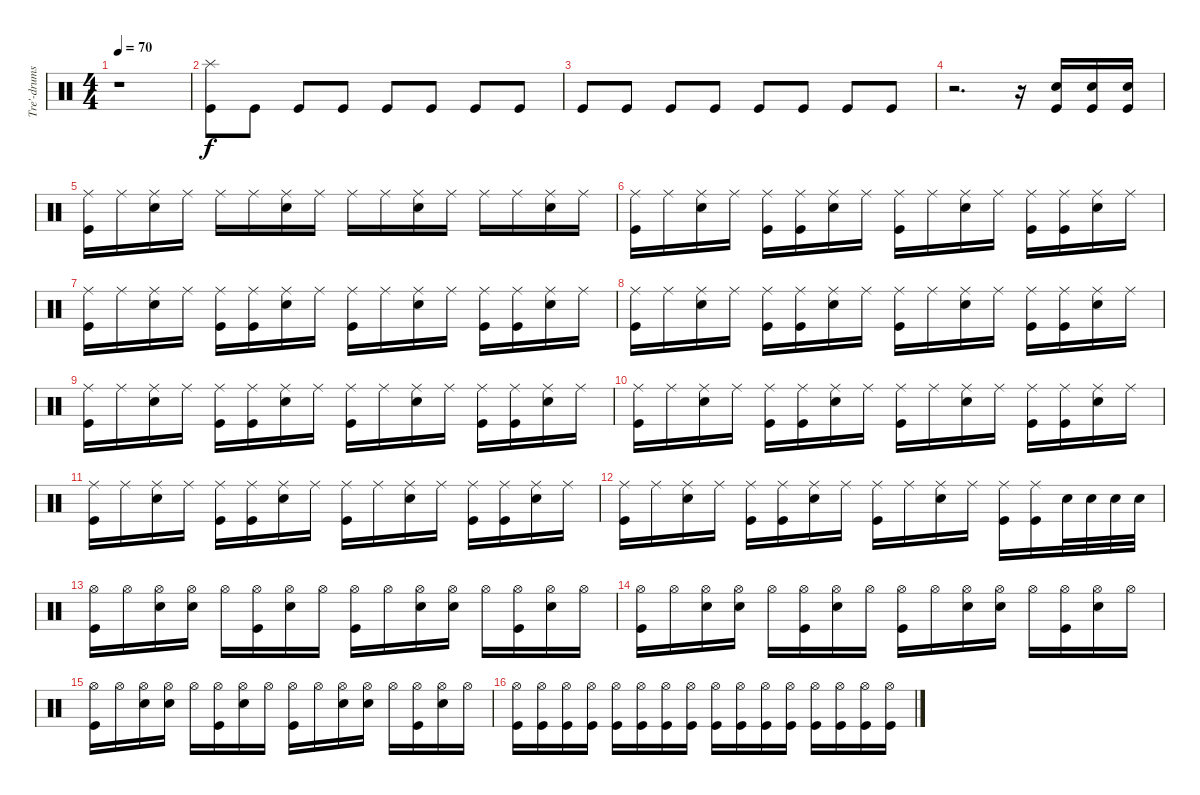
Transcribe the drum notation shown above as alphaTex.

\track ("Tre'-drums" "Tre'-drums") {instrument percussion}
\staff {score}
\articulation defaults
\ts (4 4)
\tempo 70
\clef neutral
\ks c
r.1{dy f} |
("Splash (hit)" "Kick (hit)").8 "Kick (hit)".8 "Kick (hit)".8 "Kick (hit)".8 "Kick (hit)".8 "Kick (hit)".8 "Kick (hit)".8 "Kick (hit)".8 |
"Kick (hit)".8 "Kick (hit)".8 "Kick (hit)".8 "Kick (hit)".8 "Kick (hit)".8 "Kick (hit)".8 "Kick (hit)".8 "Kick (hit)".8 |
r.2{d} r.16 ("Snare (hit) 2" "Kick (hit)").16 ("Snare (hit) 2" "Kick (hit)").16 ("Snare (hit) 2" "Kick (hit)").16 |
("Ride (middle)" "Kick (hit)").16 "Ride (middle)".16 ("Ride (middle)" "Snare (hit) 2").16 "Ride (middle)".16 "Ride (middle)".16 "Ride (middle)".16 ("Ride (middle)" "Snare (hit) 2").16 "Ride (middle)".16 "Ride (middle)".16 "Ride (middle)".16 ("Ride (middle)" "Snare (hit) 2").16 "Ride (middle)".16 "Ride (middle)".16 "Ride (middle)".16 ("Ride (middle)" "Snare (hit) 2").16 "Ride (middle)".16 |
("Ride (middle)" "Kick (hit)").16 "Ride (middle)".16 ("Ride (middle)" "Snare (hit) 2").16 "Ride (middle)".16 ("Ride (middle)" "Kick (hit)").16 ("Ride (middle)" "Kick (hit)").16 ("Ride (middle)" "Snare (hit) 2").16 "Ride (middle)".16 ("Ride (middle)" "Kick (hit)").16 "Ride (middle)".16 ("Ride (middle)" "Snare (hit) 2").16 "Ride (middle)".16 ("Ride (middle)" "Kick (hit)").16 ("Ride (middle)" "Kick (hit)").16 ("Ride (middle)" "Snare (hit) 2").16 "Ride (middle)".16 |
("Ride (middle)" "Kick (hit)").16 "Ride (middle)".16 ("Ride (middle)" "Snare (hit) 2").16 "Ride (middle)".16 ("Ride (middle)" "Kick (hit)").16 ("Ride (middle)" "Kick (hit)").16 ("Ride (middle)" "Snare (hit) 2").16 "Ride (middle)".16 ("Ride (middle)" "Kick (hit)").16 "Ride (middle)".16 ("Ride (middle)" "Snare (hit) 2").16 "Ride (middle)".16 ("Ride (middle)" "Kick (hit)").16 ("Ride (middle)" "Kick (hit)").16 ("Ride (middle)" "Snare (hit) 2").16 "Ride (middle)".16 |
("Ride (middle)" "Kick (hit)").16 "Ride (middle)".16 ("Ride (middle)" "Snare (hit) 2").16 "Ride (middle)".16 ("Ride (middle)" "Kick (hit)").16 ("Ride (middle)" "Kick (hit)").16 ("Ride (middle)" "Snare (hit) 2").16 "Ride (middle)".16 ("Ride (middle)" "Kick (hit)").16 "Ride (middle)".16 ("Ride (middle)" "Snare (hit) 2").16 "Ride (middle)".16 ("Ride (middle)" "Kick (hit)").16 ("Ride (middle)" "Kick (hit)").16 ("Ride (middle)" "Snare (hit) 2").16 "Ride (middle)".16 |
("Ride (middle)" "Kick (hit)").16 "Ride (middle)".16 ("Ride (middle)" "Snare (hit) 2").16 "Ride (middle)".16 ("Ride (middle)" "Kick (hit)").16 ("Ride (middle)" "Kick (hit)").16 ("Ride (middle)" "Snare (hit) 2").16 "Ride (middle)".16 ("Ride (middle)" "Kick (hit)").16 "Ride (middle)".16 ("Ride (middle)" "Snare (hit) 2").16 "Ride (middle)".16 ("Ride (middle)" "Kick (hit)").16 ("Ride (middle)" "Kick (hit)").16 ("Ride (middle)" "Snare (hit) 2").16 "Ride (middle)".16 |
("Ride (middle)" "Kick (hit)").16 "Ride (middle)".16 ("Ride (middle)" "Snare (hit) 2").16 "Ride (middle)".16 ("Ride (middle)" "Kick (hit)").16 ("Ride (middle)" "Kick (hit)").16 ("Ride (middle)" "Snare (hit) 2").16 "Ride (middle)".16 ("Ride (middle)" "Kick (hit)").16 "Ride (middle)".16 ("Ride (middle)" "Snare (hit) 2").16 "Ride (middle)".16 ("Ride (middle)" "Kick (hit)").16 ("Ride (middle)" "Kick (hit)").16 ("Ride (middle)" "Snare (hit) 2").16 "Ride (middle)".16 |
("Ride (middle)" "Kick (hit)").16 "Ride (middle)".16 ("Ride (middle)" "Snare (hit) 2").16 "Ride (middle)".16 ("Ride (middle)" "Kick (hit)").16 ("Ride (middle)" "Kick (hit)").16 ("Ride (middle)" "Snare (hit) 2").16 "Ride (middle)".16 ("Ride (middle)" "Kick (hit)").16 "Ride (middle)".16 ("Ride (middle)" "Snare (hit) 2").16 "Ride (middle)".16 ("Ride (middle)" "Kick (hit)").16 ("Ride (middle)" "Kick (hit)").16 ("Ride (middle)" "Snare (hit) 2").16 "Ride (middle)".16 |
("Ride (middle)" "Kick (hit)").16 "Ride (middle)".16 ("Ride (middle)" "Snare (hit) 2").16 "Ride (middle)".16 ("Ride (middle)" "Kick (hit)").16 ("Ride (middle)" "Kick (hit)").16 ("Ride (middle)" "Snare (hit) 2").16 "Ride (middle)".16 ("Ride (middle)" "Kick (hit)").16 "Ride (middle)".16 ("Ride (middle)" "Snare (hit) 2").16 "Ride (middle)".16 ("Ride (middle)" "Kick (hit)").16 ("Ride (middle)" "Kick (hit)").16 "Snare (hit) 2".32 "Snare (hit) 2".32 "Snare (hit) 2".32 "Snare (hit) 2".32 |
("Hi-Hat (open)" "Kick (hit)").16 "Hi-Hat (open)".16 ("Hi-Hat (open)" "Snare (hit) 2").16 ("Hi-Hat (open)" "Snare (hit) 2").16 "Hi-Hat (open)".16 ("Hi-Hat (open)" "Kick (hit)").16 ("Hi-Hat (open)" "Snare (hit) 2").16 "Hi-Hat (open)".16 ("Hi-Hat (open)" "Kick (hit)").16 "Hi-Hat (open)".16 ("Hi-Hat (open)" "Snare (hit) 2").16 ("Hi-Hat (open)" "Snare (hit) 2").16 "Hi-Hat (open)".16 ("Hi-Hat (open)" "Kick (hit)").16 ("Hi-Hat (open)" "Snare (hit) 2").16 "Hi-Hat (open)".16 |
("Hi-Hat (open)" "Kick (hit)").16 "Hi-Hat (open)".16 ("Hi-Hat (open)" "Snare (hit) 2").16 ("Hi-Hat (open)" "Snare (hit) 2").16 "Hi-Hat (open)".16 ("Hi-Hat (open)" "Kick (hit)").16 ("Hi-Hat (open)" "Snare (hit) 2").16 "Hi-Hat (open)".16 ("Hi-Hat (open)" "Kick (hit)").16 "Hi-Hat (open)".16 ("Hi-Hat (open)" "Snare (hit) 2").16 ("Hi-Hat (open)" "Snare (hit) 2").16 "Hi-Hat (open)".16 ("Hi-Hat (open)" "Kick (hit)").16 ("Hi-Hat (open)" "Snare (hit) 2").16 "Hi-Hat (open)".16 |
("Hi-Hat (open)" "Kick (hit)").16 "Hi-Hat (open)".16 ("Hi-Hat (open)" "Snare (hit) 2").16 ("Hi-Hat (open)" "Snare (hit) 2").16 "Hi-Hat (open)".16 ("Hi-Hat (open)" "Kick (hit)").16 ("Hi-Hat (open)" "Snare (hit) 2").16 "Hi-Hat (open)".16 ("Hi-Hat (open)" "Kick (hit)").16 "Hi-Hat (open)".16 ("Hi-Hat (open)" "Snare (hit) 2").16 ("Hi-Hat (open)" "Snare (hit) 2").16 "Hi-Hat (open)".16 ("Hi-Hat (open)" "Kick (hit)").16 ("Hi-Hat (open)" "Snare (hit) 2").16 "Hi-Hat (open)".16 |
("Hi-Hat (open)" "Kick (hit)").16 ("Hi-Hat (open)" "Kick (hit)").16 ("Hi-Hat (open)" "Kick (hit)").16 ("Hi-Hat (open)" "Kick (hit)").16 ("Hi-Hat (open)" "Kick (hit)").16 ("Hi-Hat (open)" "Kick (hit)").16 ("Hi-Hat (open)" "Kick (hit)").16 ("Hi-Hat (open)" "Kick (hit)").16 ("Hi-Hat (open)" "Kick (hit)").16 ("Hi-Hat (open)" "Kick (hit)").16 ("Hi-Hat (open)" "Kick (hit)").16 ("Hi-Hat (open)" "Kick (hit)").16 ("Hi-Hat (open)" "Kick (hit)").16 ("Hi-Hat (open)" "Kick (hit)").16 ("Hi-Hat (open)" "Kick (hit)").16 ("Hi-Hat (open)" "Kick (hit)").16
